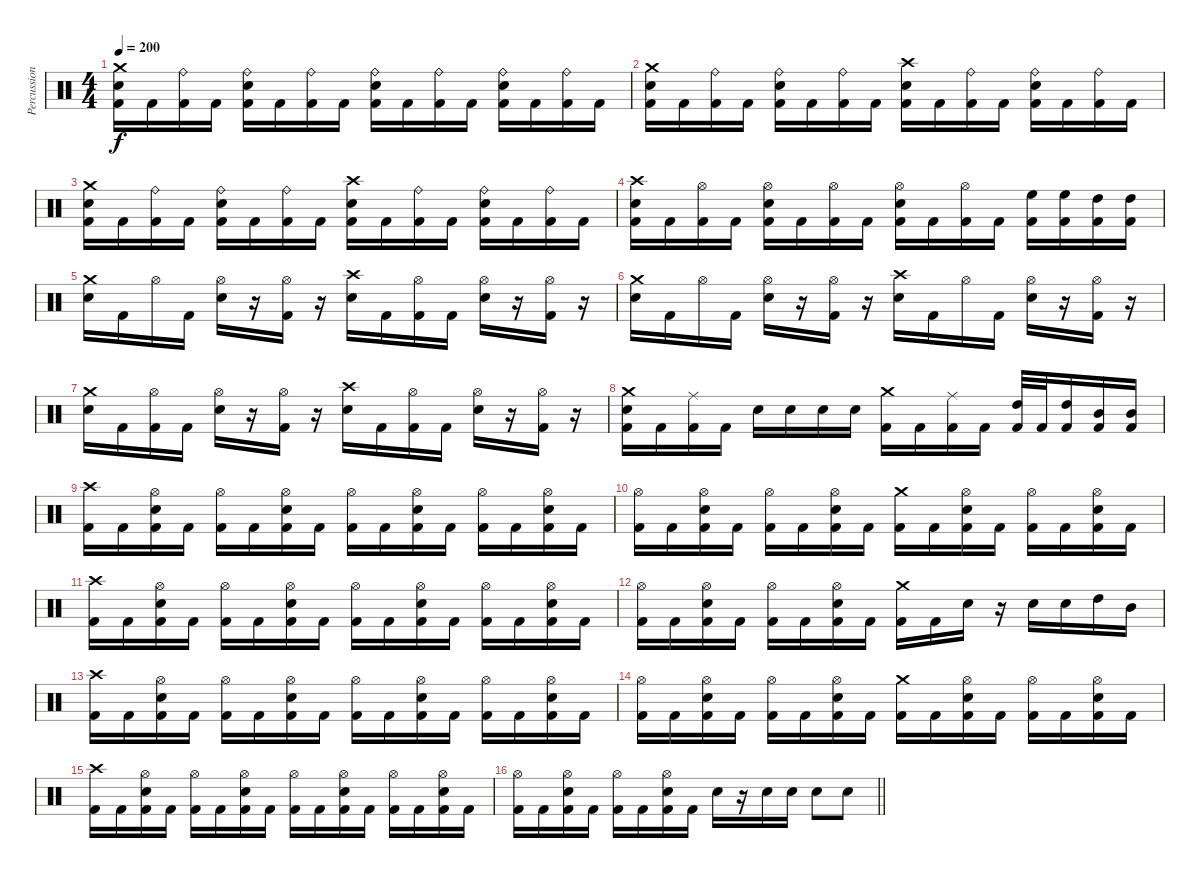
\track ("Percussion" "Percussion") {instrument percussion}
\staff {score}
\articulation defaults
\ts (4 4)
\tempo 200
\clef neutral
\ks c
("Crash medium (hit)" "Snare (hit) 2" "Kick (hit) 2").16{dy f} "Kick (hit) 2".16 ("Ride (bell)" "Kick (hit) 2").16 "Kick (hit) 2".16 ("Ride (bell)" "Snare (hit) 2" "Kick (hit) 2").16 "Kick (hit) 2".16 ("Ride (bell)" "Kick (hit) 2").16 "Kick (hit) 2".16 ("Ride (bell)" "Snare (hit) 2" "Kick (hit) 2").16 "Kick (hit) 2".16 ("Ride (bell)" "Kick (hit) 2").16 "Kick (hit) 2".16 ("Ride (bell)" "Snare (hit) 2" "Kick (hit) 2").16 "Kick (hit) 2".16 ("Ride (bell)" "Kick (hit) 2").16 "Kick (hit) 2".16 |
("Crash medium (hit)" "Snare (hit) 2" "Kick (hit) 2").16 "Kick (hit) 2".16 ("Ride (bell)" "Kick (hit) 2").16 "Kick (hit) 2".16 ("Ride (bell)" "Snare (hit) 2" "Kick (hit) 2").16 "Kick (hit) 2".16 ("Ride (bell)" "Kick (hit) 2").16 "Kick (hit) 2".16 ("Crash high (hit)" "Snare (hit) 2" "Kick (hit) 2").16 "Kick (hit) 2".16 ("Ride (bell)" "Kick (hit) 2").16 "Kick (hit) 2".16 ("Ride (bell)" "Snare (hit) 2" "Kick (hit) 2").16 "Kick (hit) 2".16 ("Ride (bell)" "Kick (hit) 2").16 "Kick (hit) 2".16 |
("Crash medium (hit)" "Snare (hit) 2" "Kick (hit) 2").16 "Kick (hit) 2".16 ("Ride (bell)" "Kick (hit) 2").16 "Kick (hit) 2".16 ("Ride (bell)" "Snare (hit) 2" "Kick (hit) 2").16 "Kick (hit) 2".16 ("Ride (bell)" "Kick (hit) 2").16 "Kick (hit) 2".16 ("Crash high (hit)" "Snare (hit) 2" "Kick (hit) 2").16 "Kick (hit) 2".16 ("Ride (bell)" "Kick (hit) 2").16 "Kick (hit) 2".16 ("Ride (bell)" "Snare (hit) 2" "Kick (hit) 2").16 "Kick (hit) 2".16 ("Ride (bell)" "Kick (hit) 2").16 "Kick (hit) 2".16 |
("Crash high (hit)" "Snare (hit) 2" "Kick (hit) 2").16 "Kick (hit) 2".16 ("Hi-Hat (open)" "Kick (hit) 2").16 "Kick (hit) 2".16 ("Hi-Hat (open)" "Snare (hit) 2" "Kick (hit) 2").16 "Kick (hit) 2".16 ("Hi-Hat (open)" "Kick (hit) 2").16 "Kick (hit) 2".16 ("Hi-Hat (open)" "Snare (hit) 2" "Kick (hit) 2").16 "Kick (hit) 2".16 ("Hi-Hat (open)" "Kick (hit) 2").16 "Kick (hit) 2".16 ("High Floor Tom (hit)" "Kick (hit) 2").16 ("High Floor Tom (hit)" "Kick (hit) 2").16 ("High Tom (hit)" "Kick (hit) 2").16 ("High Tom (hit)" "Kick (hit) 2").16 |
("Crash medium (hit)" "Snare (hit) 2").16 "Kick (hit) 2".16 "Hi-Hat (open)".16 "Kick (hit) 2".16 ("Hi-Hat (open)" "Snare (hit) 2").16 r.16 ("Hi-Hat (open)" "Kick (hit) 2").16 r.16 ("Crash high (hit)" "Snare (hit) 2").16 "Kick (hit) 2".16 ("Hi-Hat (open)" "Kick (hit) 2").16 "Kick (hit) 2".16 ("Hi-Hat (open)" "Snare (hit) 2").16 r.16 ("Hi-Hat (open)" "Kick (hit) 2").16 r.16 |
("Crash medium (hit)" "Snare (hit) 2").16 "Kick (hit) 2".16 "Hi-Hat (open)".16 "Kick (hit) 2".16 ("Hi-Hat (open)" "Snare (hit) 2").16 r.16 ("Hi-Hat (open)" "Kick (hit) 2").16 r.16 ("Crash high (hit)" "Snare (hit) 2").16 "Kick (hit) 2".16 "Hi-Hat (open)".16 "Kick (hit) 2".16 ("Hi-Hat (open)" "Snare (hit) 2").16 r.16 ("Hi-Hat (open)" "Kick (hit) 2").16 r.16 |
("Crash medium (hit)" "Snare (hit) 2").16 "Kick (hit) 2".16 ("Hi-Hat (open)" "Kick (hit) 2").16 "Kick (hit) 2".16 ("Hi-Hat (open)" "Snare (hit) 2").16 r.16 ("Hi-Hat (open)" "Kick (hit) 2").16 r.16 ("Crash high (hit)" "Snare (hit) 2").16 "Kick (hit) 2".16 ("Hi-Hat (open)" "Kick (hit) 2").16 "Kick (hit) 2".16 ("Hi-Hat (open)" "Snare (hit) 2").16 r.16 ("Hi-Hat (open)" "Kick (hit) 2").16 r.16 |
("Crash medium (hit)" "Snare (hit) 2" "Kick (hit) 2").16 "Kick (hit) 2".16 ("Ride (middle)" "Kick (hit) 2").16 "Kick (hit) 2".16 "Snare (hit) 2".16 "Snare (hit) 2".16 "Snare (hit) 2".16 "Snare (hit) 2".16 ("Crash medium (hit)" "Kick (hit) 2").16 "Kick (hit) 2".16 ("Ride (middle)" "Kick (hit) 2").16 "Kick (hit) 2".16 ("High Tom (hit)" "Kick (hit) 2").32 "Kick (hit) 2".32 ("High Tom (hit)" "Kick (hit) 2").16 ("Mid Tom (hit)" "Kick (hit) 2").16 ("Mid Tom (hit)" "Kick (hit) 2").16 |
("Crash high (hit)" "Kick (hit) 2").16 "Kick (hit) 2".16 ("Hi-Hat (open)" "Snare (hit) 2" "Kick (hit) 2").16 "Kick (hit) 2".16 ("Hi-Hat (open)" "Kick (hit) 2").16 "Kick (hit) 2".16 ("Hi-Hat (open)" "Snare (hit) 2" "Kick (hit) 2").16 "Kick (hit) 2".16 ("Hi-Hat (open)" "Kick (hit) 2").16 "Kick (hit) 2".16 ("Hi-Hat (open)" "Snare (hit) 2" "Kick (hit) 2").16 "Kick (hit) 2".16 ("Hi-Hat (open)" "Kick (hit) 2").16 "Kick (hit) 2".16 ("Hi-Hat (open)" "Snare (hit) 2" "Kick (hit) 2").16 "Kick (hit) 2".16 |
("Hi-Hat (open)" "Kick (hit) 2").16 "Kick (hit) 2".16 ("Hi-Hat (open)" "Snare (hit) 2" "Kick (hit) 2").16 "Kick (hit) 2".16 ("Hi-Hat (open)" "Kick (hit) 2").16 "Kick (hit) 2".16 ("Hi-Hat (open)" "Snare (hit) 2" "Kick (hit) 2").16 "Kick (hit) 2".16 ("Crash medium (hit)" "Kick (hit) 2").16 "Kick (hit) 2".16 ("Hi-Hat (open)" "Snare (hit) 2" "Kick (hit) 2").16 "Kick (hit) 2".16 ("Hi-Hat (open)" "Kick (hit) 2").16 "Kick (hit) 2".16 ("Hi-Hat (open)" "Snare (hit) 2" "Kick (hit) 2").16 "Kick (hit) 2".16 |
("Crash high (hit)" "Kick (hit) 2").16 "Kick (hit) 2".16 ("Hi-Hat (open)" "Snare (hit) 2" "Kick (hit) 2").16 "Kick (hit) 2".16 ("Hi-Hat (open)" "Kick (hit) 2").16 "Kick (hit) 2".16 ("Hi-Hat (open)" "Snare (hit) 2" "Kick (hit) 2").16 "Kick (hit) 2".16 ("Hi-Hat (open)" "Kick (hit) 2").16 "Kick (hit) 2".16 ("Hi-Hat (open)" "Snare (hit) 2" "Kick (hit) 2").16 "Kick (hit) 2".16 ("Hi-Hat (open)" "Kick (hit) 2").16 "Kick (hit) 2".16 ("Hi-Hat (open)" "Snare (hit) 2" "Kick (hit) 2").16 "Kick (hit) 2".16 |
("Hi-Hat (open)" "Kick (hit) 2").16 "Kick (hit) 2".16 ("Hi-Hat (open)" "Snare (hit) 2" "Kick (hit) 2").16 "Kick (hit) 2".16 ("Hi-Hat (open)" "Kick (hit) 2").16 "Kick (hit) 2".16 ("Hi-Hat (open)" "Snare (hit) 2" "Kick (hit) 2").16 "Kick (hit) 2".16 ("Crash medium (hit)" "Kick (hit) 2").16 "Kick (hit) 2".16 "Snare (hit) 2".16 r.16 "Snare (hit) 2".16 "Snare (hit) 2".16 "High Tom (hit)".16 "Mid Tom (hit)".16 |
("Crash high (hit)" "Kick (hit) 2").16 "Kick (hit) 2".16 ("Hi-Hat (open)" "Snare (hit) 2" "Kick (hit) 2").16 "Kick (hit) 2".16 ("Hi-Hat (open)" "Kick (hit) 2").16 "Kick (hit) 2".16 ("Hi-Hat (open)" "Snare (hit) 2" "Kick (hit) 2").16 "Kick (hit) 2".16 ("Hi-Hat (open)" "Kick (hit) 2").16 "Kick (hit) 2".16 ("Hi-Hat (open)" "Snare (hit) 2" "Kick (hit) 2").16 "Kick (hit) 2".16 ("Hi-Hat (open)" "Kick (hit) 2").16 "Kick (hit) 2".16 ("Hi-Hat (open)" "Snare (hit) 2" "Kick (hit) 2").16 "Kick (hit) 2".16 |
("Hi-Hat (open)" "Kick (hit) 2").16 "Kick (hit) 2".16 ("Hi-Hat (open)" "Snare (hit) 2" "Kick (hit) 2").16 "Kick (hit) 2".16 ("Hi-Hat (open)" "Kick (hit) 2").16 "Kick (hit) 2".16 ("Hi-Hat (open)" "Snare (hit) 2" "Kick (hit) 2").16 "Kick (hit) 2".16 ("Crash medium (hit)" "Kick (hit) 2").16 "Kick (hit) 2".16 ("Hi-Hat (open)" "Snare (hit) 2" "Kick (hit) 2").16 "Kick (hit) 2".16 ("Hi-Hat (open)" "Kick (hit) 2").16 "Kick (hit) 2".16 ("Hi-Hat (open)" "Snare (hit) 2" "Kick (hit) 2").16 "Kick (hit) 2".16 |
("Crash high (hit)" "Kick (hit) 2").16 "Kick (hit) 2".16 ("Hi-Hat (open)" "Snare (hit) 2" "Kick (hit) 2").16 "Kick (hit) 2".16 ("Hi-Hat (open)" "Kick (hit) 2").16 "Kick (hit) 2".16 ("Hi-Hat (open)" "Snare (hit) 2" "Kick (hit) 2").16 "Kick (hit) 2".16 ("Hi-Hat (open)" "Kick (hit) 2").16 "Kick (hit) 2".16 ("Hi-Hat (open)" "Snare (hit) 2" "Kick (hit) 2").16 "Kick (hit) 2".16 ("Hi-Hat (open)" "Kick (hit) 2").16 "Kick (hit) 2".16 ("Hi-Hat (open)" "Snare (hit) 2" "Kick (hit) 2").16 "Kick (hit) 2".16 |
\barLineRight lightlight
("Hi-Hat (open)" "Kick (hit) 2").16 "Kick (hit) 2".16 ("Hi-Hat (open)" "Snare (hit) 2" "Kick (hit) 2").16 "Kick (hit) 2".16 ("Hi-Hat (open)" "Kick (hit) 2").16 "Kick (hit) 2".16 ("Hi-Hat (open)" "Snare (hit) 2" "Kick (hit) 2").16 "Kick (hit) 2".16 "Snare (hit) 2".16 r.16 "Snare (hit) 2".16 "Snare (hit) 2".16 "Snare (hit) 2".8 "Snare (hit) 2".8
